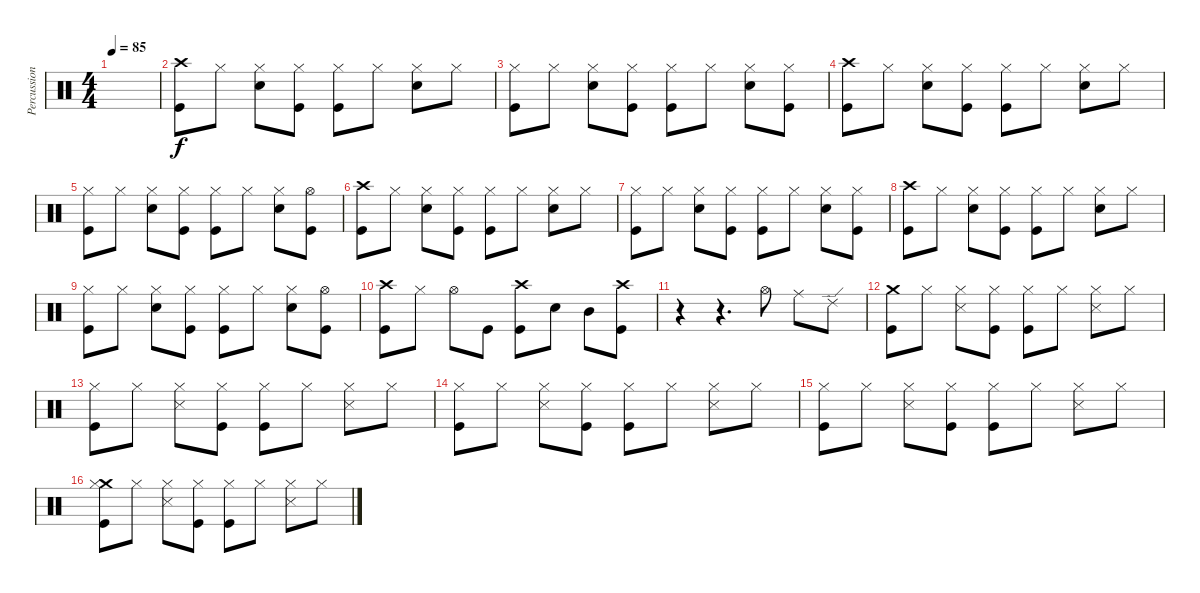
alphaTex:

\track ("Percussion" "Percussion") {instrument percussion}
\staff {score}
\articulation defaults
\ts (4 4)
\tempo 85
\clef neutral
\ks c
|
("Crash high (hit)" "Kick (hit)").8 "Hi-Hat (closed)".8 ("Hi-Hat (closed)" "Snare (hit) 2").8 ("Hi-Hat (closed)" "Kick (hit)").8 ("Hi-Hat (closed)" "Kick (hit)").8 "Hi-Hat (closed)".8 ("Hi-Hat (closed)" "Snare (hit) 2").8 "Hi-Hat (closed)".8 |
("Hi-Hat (closed)" "Kick (hit)").8 "Hi-Hat (closed)".8 ("Hi-Hat (closed)" "Snare (hit) 2").8 ("Hi-Hat (closed)" "Kick (hit)").8 ("Hi-Hat (closed)" "Kick (hit)").8 "Hi-Hat (closed)".8 ("Hi-Hat (closed)" "Snare (hit) 2").8 ("Hi-Hat (closed)" "Kick (hit)").8 |
("Crash high (hit)" "Kick (hit)").8 "Hi-Hat (closed)".8 ("Hi-Hat (closed)" "Snare (hit) 2").8 ("Hi-Hat (closed)" "Kick (hit)").8 ("Hi-Hat (closed)" "Kick (hit)").8 "Hi-Hat (closed)".8 ("Hi-Hat (closed)" "Snare (hit) 2").8 "Hi-Hat (closed)".8 |
("Hi-Hat (closed)" "Kick (hit)").8 "Hi-Hat (closed)".8 ("Hi-Hat (closed)" "Snare (hit) 2").8 ("Hi-Hat (closed)" "Kick (hit)").8 ("Hi-Hat (closed)" "Kick (hit)").8 "Hi-Hat (closed)".8 ("Hi-Hat (closed)" "Snare (hit) 2").8 ("Hi-Hat (open)" "Kick (hit)").8 |
("Crash high (hit)" "Kick (hit)").8 "Hi-Hat (closed)".8 ("Hi-Hat (closed)" "Snare (hit) 2").8 ("Hi-Hat (closed)" "Kick (hit)").8 ("Hi-Hat (closed)" "Kick (hit)").8 "Hi-Hat (closed)".8 ("Hi-Hat (closed)" "Snare (hit) 2").8 "Hi-Hat (closed)".8 |
("Hi-Hat (closed)" "Kick (hit)").8 "Hi-Hat (closed)".8 ("Hi-Hat (closed)" "Snare (hit) 2").8 ("Hi-Hat (closed)" "Kick (hit)").8 ("Hi-Hat (closed)" "Kick (hit)").8 "Hi-Hat (closed)".8 ("Hi-Hat (closed)" "Snare (hit) 2").8 ("Hi-Hat (closed)" "Kick (hit)").8 |
("Crash high (hit)" "Kick (hit)").8 "Hi-Hat (closed)".8 ("Hi-Hat (closed)" "Snare (hit) 2").8 ("Hi-Hat (closed)" "Kick (hit)").8 ("Hi-Hat (closed)" "Kick (hit)").8 "Hi-Hat (closed)".8 ("Hi-Hat (closed)" "Snare (hit) 2").8 "Hi-Hat (closed)".8 |
("Hi-Hat (closed)" "Kick (hit)").8 "Hi-Hat (closed)".8 ("Hi-Hat (closed)" "Snare (hit) 2").8 ("Hi-Hat (closed)" "Kick (hit)").8 ("Hi-Hat (closed)" "Kick (hit)").8 "Hi-Hat (closed)".8 ("Hi-Hat (closed)" "Snare (hit) 2").8 ("Hi-Hat (open)" "Kick (hit)").8 |
("Crash high (hit)" "Kick (hit)").8 "Hi-Hat (closed)".8 "Hi-Hat (open)".8 "Kick (hit)".8 ("Crash high (hit)" "Kick (hit)").8 "Snare (hit) 2".8 "Mid Tom (hit)".8 ("Crash high (hit)" "Kick (hit)").8 |
r.4 r.4{d} "Hi-Hat (open)".8 "Ride (middle)".8 "Ride (edge) 2".8 |
("Crash medium (hit)" "Kick (hit)").8 "Hi-Hat (closed)".8 ("Hi-Hat (closed)" "Snare (side stick) 3").8 ("Hi-Hat (closed)" "Kick (hit)").8 ("Hi-Hat (closed)" "Kick (hit)").8 "Hi-Hat (closed)".8 ("Hi-Hat (closed)" "Snare (side stick) 3").8 "Hi-Hat (closed)".8 |
("Hi-Hat (closed)" "Kick (hit)").8 "Hi-Hat (closed)".8 ("Hi-Hat (closed)" "Snare (side stick) 3").8 ("Hi-Hat (closed)" "Kick (hit)").8 ("Hi-Hat (closed)" "Kick (hit)").8 "Hi-Hat (closed)".8 ("Hi-Hat (closed)" "Snare (side stick) 3").8 "Hi-Hat (closed)".8 |
("Hi-Hat (closed)" "Kick (hit)").8 "Hi-Hat (closed)".8 ("Hi-Hat (closed)" "Snare (side stick) 3").8 ("Hi-Hat (closed)" "Kick (hit)").8 ("Hi-Hat (closed)" "Kick (hit)").8 "Hi-Hat (closed)".8 ("Hi-Hat (closed)" "Snare (side stick) 3").8 "Hi-Hat (closed)".8 |
("Hi-Hat (closed)" "Kick (hit)").8 "Hi-Hat (closed)".8 ("Hi-Hat (closed)" "Snare (side stick) 3").8 ("Hi-Hat (closed)" "Kick (hit)").8 ("Hi-Hat (closed)" "Kick (hit)").8 "Hi-Hat (closed)".8 ("Hi-Hat (closed)" "Snare (side stick) 3").8 "Hi-Hat (closed)".8 |
("Crash medium (hit)" "Hi-Hat (closed)" "Kick (hit)").8 "Hi-Hat (closed)".8 ("Hi-Hat (closed)" "Snare (side stick) 3").8 ("Hi-Hat (closed)" "Kick (hit)").8 ("Hi-Hat (closed)" "Kick (hit)").8 "Hi-Hat (closed)".8 ("Hi-Hat (closed)" "Snare (side stick) 3").8 "Hi-Hat (closed)".8
